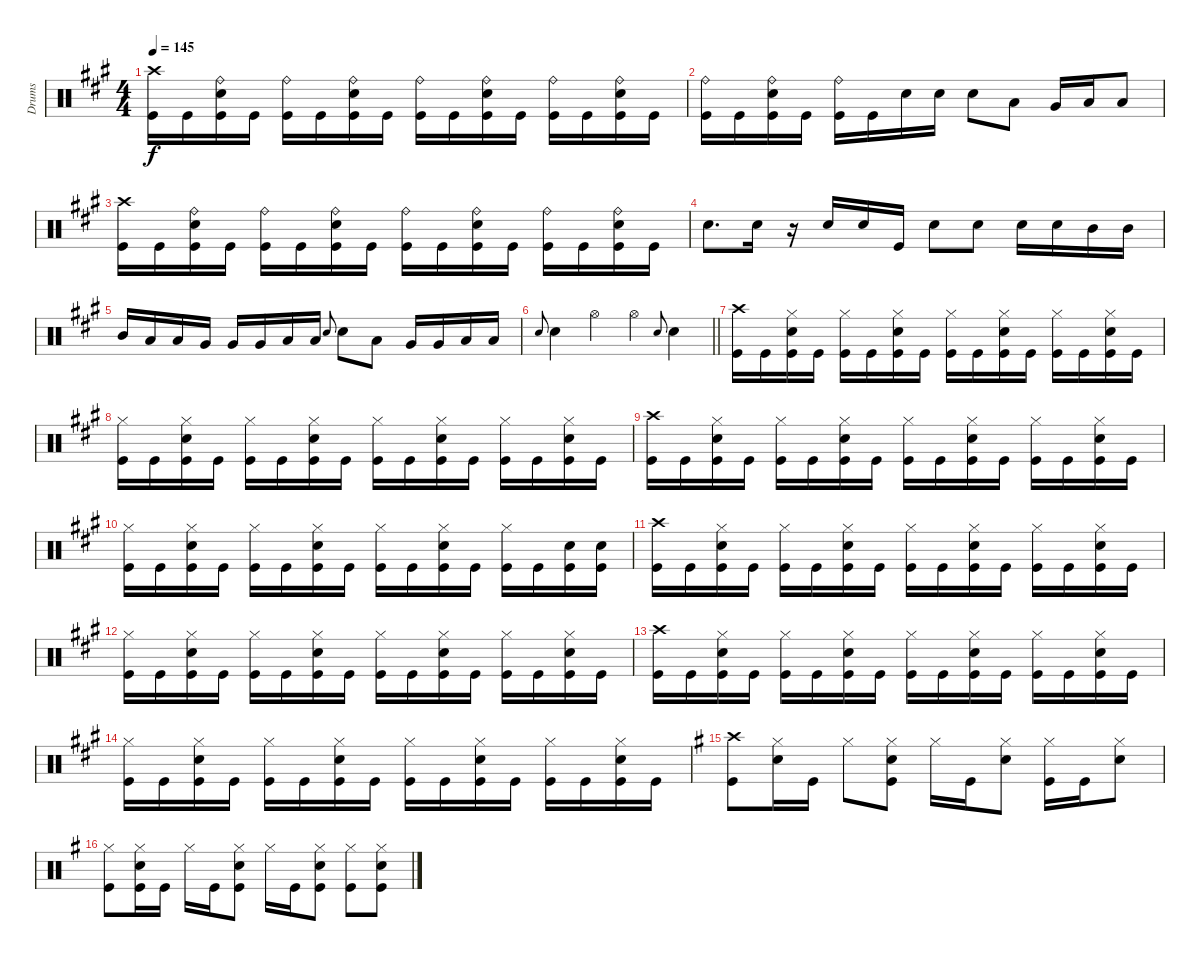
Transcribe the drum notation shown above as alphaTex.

\track ("Drums" "Drums") {instrument percussion}
\staff {score}
\articulation defaults
\ts (4 4)
\tempo 145
\clef neutral
\ks f#minor
("Crash high (hit)" "Kick (hit)").16{dy f} "Kick (hit)".16 ("Ride (bell)" "Snare (hit) 2" "Kick (hit)").16 "Kick (hit)".16 ("Ride (bell)" "Kick (hit)").16 "Kick (hit)".16 ("Ride (bell)" "Snare (hit) 2" "Kick (hit)").16 "Kick (hit)".16 ("Ride (bell)" "Kick (hit)").16 "Kick (hit)".16 ("Ride (bell)" "Snare (hit) 2" "Kick (hit)").16 "Kick (hit)".16 ("Ride (bell)" "Kick (hit)").16 "Kick (hit)".16 ("Ride (bell)" "Snare (hit) 2" "Kick (hit)").16 "Kick (hit)".16 |
("Ride (bell)" "Kick (hit)").16 "Kick (hit)".16 ("Ride (bell)" "Snare (hit) 2" "Kick (hit)").16 "Kick (hit)".16 ("Ride (bell)" "Kick (hit)").16 "Kick (hit)".16 "Snare (hit) 2".16 "Snare (hit) 2".16 "Snare (hit) 2".8 "Low Tom (hit)".8 "Very Low Tom (hit)".16 "Low Tom (hit)".16 "Low Floor Tom (hit)".8 |
("Crash high (hit)" "Kick (hit)").16 "Kick (hit)".16 ("Ride (bell)" "Snare (hit) 2" "Kick (hit)").16 "Kick (hit)".16 ("Ride (bell)" "Kick (hit)").16 "Kick (hit)".16 ("Ride (bell)" "Snare (hit) 2" "Kick (hit)").16 "Kick (hit)".16 ("Ride (bell)" "Kick (hit)").16 "Kick (hit)".16 ("Ride (bell)" "Snare (hit) 2" "Kick (hit)").16 "Kick (hit)".16 ("Ride (bell)" "Kick (hit)").16 "Kick (hit)".16 ("Ride (bell)" "Snare (hit) 2" "Kick (hit)").16 "Kick (hit)".16 |
"Snare (hit) 2".8{d} "Snare (hit) 2".16 r.16 "Snare (hit) 2".16 "Snare (hit) 2".16 "Kick (hit)".16 "Snare (hit) 2".8 "Snare (hit) 2".8 "Snare (hit) 2".16 "Snare (hit) 2".16 "Mid Tom (hit)".16 "Mid Tom (hit)".16 |
"Mid Tom (hit)".16 "Low Tom (hit)".16 "Low Tom (hit)".16 "Very Low Tom (hit)".16 "Very Low Tom (hit)".16 "Very Low Tom (hit)".16 "Low Floor Tom (hit)".16 "Low Floor Tom (hit)".16 "Snare (hit) 2".8{gr onbeat} "Snare (hit) 2".8 "Low Tom (hit)".8 "Very Low Tom (hit)".16 "Very Low Tom (hit)".16 "Low Floor Tom (hit)".16 "Low Floor Tom (hit)".16 |
\barLineRight lightlight "Snare (hit) 2".8{gr onbeat} "Snare (hit) 2".4 "Hi-Hat (open)".4 "Hi-Hat (open)".4 "Snare (hit) 2".8{gr onbeat} "Snare (hit) 2".4
|
("Crash high (hit)" "Kick (hit)").16 "Kick (hit)".16 ("Hi-Hat (closed)" "Snare (hit) 2" "Kick (hit)").16 "Kick (hit)".16 ("Hi-Hat (closed)" "Kick (hit)").16 "Kick (hit)".16 ("Hi-Hat (closed)" "Snare (hit) 2" "Kick (hit)").16 "Kick (hit)".16 ("Hi-Hat (closed)" "Kick (hit)").16 "Kick (hit)".16 ("Hi-Hat (closed)" "Snare (hit) 2" "Kick (hit)").16 "Kick (hit)".16 ("Hi-Hat (closed)" "Kick (hit)").16 "Kick (hit)".16 ("Hi-Hat (closed)" "Snare (hit) 2" "Kick (hit)").16 "Kick (hit)".16 |
("Hi-Hat (closed)" "Kick (hit)").16 "Kick (hit)".16 ("Hi-Hat (closed)" "Snare (hit) 2" "Kick (hit)").16 "Kick (hit)".16 ("Hi-Hat (closed)" "Kick (hit)").16 "Kick (hit)".16 ("Hi-Hat (closed)" "Snare (hit) 2" "Kick (hit)").16 "Kick (hit)".16 ("Hi-Hat (closed)" "Kick (hit)").16 "Kick (hit)".16 ("Hi-Hat (closed)" "Snare (hit) 2" "Kick (hit)").16 "Kick (hit)".16 ("Hi-Hat (closed)" "Kick (hit)").16 "Kick (hit)".16 ("Hi-Hat (closed)" "Snare (hit) 2" "Kick (hit)").16 "Kick (hit)".16 |
("Crash high (hit)" "Kick (hit)").16 "Kick (hit)".16 ("Hi-Hat (closed)" "Snare (hit) 2" "Kick (hit)").16 "Kick (hit)".16 ("Hi-Hat (closed)" "Kick (hit)").16 "Kick (hit)".16 ("Hi-Hat (closed)" "Snare (hit) 2" "Kick (hit)").16 "Kick (hit)".16 ("Hi-Hat (closed)" "Kick (hit)").16 "Kick (hit)".16 ("Hi-Hat (closed)" "Snare (hit) 2" "Kick (hit)").16 "Kick (hit)".16 ("Hi-Hat (closed)" "Kick (hit)").16 "Kick (hit)".16 ("Hi-Hat (closed)" "Snare (hit) 2" "Kick (hit)").16 "Kick (hit)".16 |
("Hi-Hat (closed)" "Kick (hit)").16 "Kick (hit)".16 ("Hi-Hat (closed)" "Snare (hit) 2" "Kick (hit)").16 "Kick (hit)".16 ("Hi-Hat (closed)" "Kick (hit)").16 "Kick (hit)".16 ("Hi-Hat (closed)" "Snare (hit) 2" "Kick (hit)").16 "Kick (hit)".16 ("Hi-Hat (closed)" "Kick (hit)").16 "Kick (hit)".16 ("Hi-Hat (closed)" "Snare (hit) 2" "Kick (hit)").16 "Kick (hit)".16 ("Hi-Hat (closed)" "Kick (hit)").16 "Kick (hit)".16 ("Snare (hit) 2" "Kick (hit)").16 ("Snare (hit) 2" "Kick (hit)").16 |
("Crash high (hit)" "Kick (hit)").16 "Kick (hit)".16 ("Hi-Hat (closed)" "Snare (hit) 2" "Kick (hit)").16 "Kick (hit)".16 ("Hi-Hat (closed)" "Kick (hit)").16 "Kick (hit)".16 ("Hi-Hat (closed)" "Snare (hit) 2" "Kick (hit)").16 "Kick (hit)".16 ("Hi-Hat (closed)" "Kick (hit)").16 "Kick (hit)".16 ("Hi-Hat (closed)" "Snare (hit) 2" "Kick (hit)").16 "Kick (hit)".16 ("Hi-Hat (closed)" "Kick (hit)").16 "Kick (hit)".16 ("Hi-Hat (closed)" "Snare (hit) 2" "Kick (hit)").16 "Kick (hit)".16 |
("Hi-Hat (closed)" "Kick (hit)").16 "Kick (hit)".16 ("Hi-Hat (closed)" "Snare (hit) 2" "Kick (hit)").16 "Kick (hit)".16 ("Hi-Hat (closed)" "Kick (hit)").16 "Kick (hit)".16 ("Hi-Hat (closed)" "Snare (hit) 2" "Kick (hit)").16 "Kick (hit)".16 ("Hi-Hat (closed)" "Kick (hit)").16 "Kick (hit)".16 ("Hi-Hat (closed)" "Snare (hit) 2" "Kick (hit)").16 "Kick (hit)".16 ("Hi-Hat (closed)" "Kick (hit)").16 "Kick (hit)".16 ("Hi-Hat (closed)" "Snare (hit) 2" "Kick (hit)").16 "Kick (hit)".16 |
("Crash high (hit)" "Kick (hit)").16 "Kick (hit)".16 ("Hi-Hat (closed)" "Snare (hit) 2" "Kick (hit)").16 "Kick (hit)".16 ("Hi-Hat (closed)" "Kick (hit)").16 "Kick (hit)".16 ("Hi-Hat (closed)" "Snare (hit) 2" "Kick (hit)").16 "Kick (hit)".16 ("Hi-Hat (closed)" "Kick (hit)").16 "Kick (hit)".16 ("Hi-Hat (closed)" "Snare (hit) 2" "Kick (hit)").16 "Kick (hit)".16 ("Hi-Hat (closed)" "Kick (hit)").16 "Kick (hit)".16 ("Hi-Hat (closed)" "Snare (hit) 2" "Kick (hit)").16 "Kick (hit)".16 |
("Hi-Hat (closed)" "Kick (hit)").16 "Kick (hit)".16 ("Hi-Hat (closed)" "Snare (hit) 2" "Kick (hit)").16 "Kick (hit)".16 ("Hi-Hat (closed)" "Kick (hit)").16 "Kick (hit)".16 ("Hi-Hat (closed)" "Snare (hit) 2" "Kick (hit)").16 "Kick (hit)".16 ("Hi-Hat (closed)" "Kick (hit)").16 "Kick (hit)".16 ("Hi-Hat (closed)" "Snare (hit) 2" "Kick (hit)").16 "Kick (hit)".16 ("Hi-Hat (closed)" "Kick (hit)").16 "Kick (hit)".16 ("Hi-Hat (closed)" "Snare (hit) 2" "Kick (hit)").16 "Kick (hit)".16 |
\ks eminor
("Crash high (hit)" "Kick (hit)").8 ("Hi-Hat (closed)" "Snare (hit) 2").16 "Kick (hit)".16 "Hi-Hat (closed)".8 ("Hi-Hat (closed)" "Snare (hit) 2" "Kick (hit)").8 "Hi-Hat (closed)".16 "Kick (hit)".16 ("Hi-Hat (closed)" "Snare (hit) 2").8 ("Hi-Hat (closed)" "Kick (hit)").16 "Kick (hit)".16 ("Hi-Hat (closed)" "Snare (hit) 2").8 |
("Hi-Hat (closed)" "Kick (hit)").8 ("Hi-Hat (closed)" "Snare (hit) 2" "Kick (hit)").16 "Kick (hit)".16 "Hi-Hat (closed)".16 "Kick (hit)".16 ("Hi-Hat (closed)" "Snare (hit) 2" "Kick (hit)").8 "Hi-Hat (closed)".16 "Kick (hit)".16 ("Hi-Hat (closed)" "Snare (hit) 2" "Kick (hit)").8 ("Hi-Hat (closed)" "Kick (hit)").8 ("Hi-Hat (closed)" "Snare (hit) 2" "Kick (hit)").8
